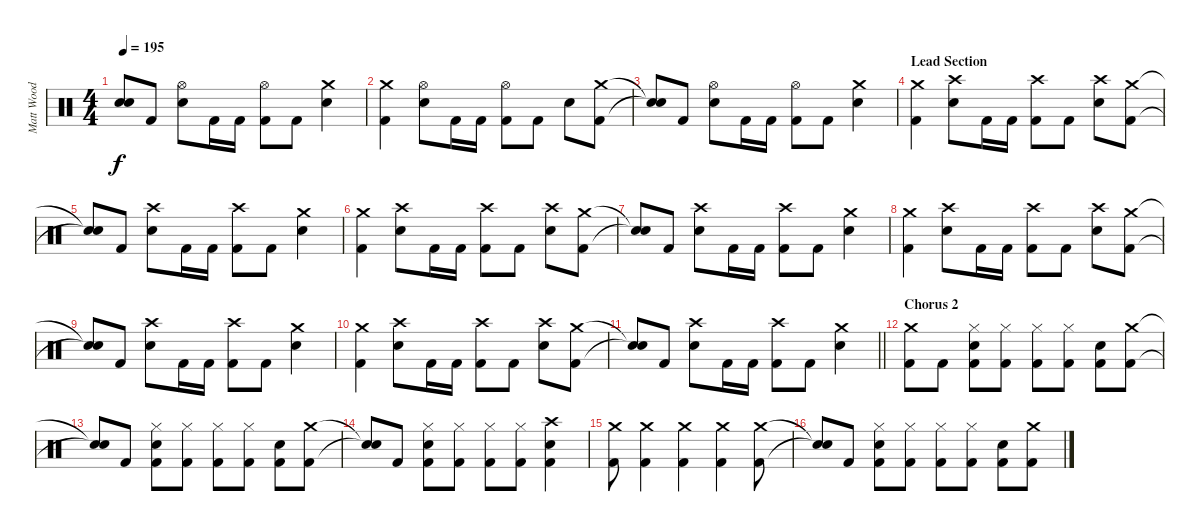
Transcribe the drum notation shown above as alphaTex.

\track ("Matt Wood" "Matt Wood") {instrument percussion}
\staff {score}
\articulation defaults
\ts (4 4)
\tempo 195
\clef neutral
\ks c
("Snare (hit)"{t} "Snare (hit)"{t}).8{dy f} "Kick (hit) 2".8 ("Hi-Hat (open)" "Snare (hit) 2").8 "Kick (hit) 2".16 "Kick (hit) 2".16 ("Hi-Hat (open)" "Kick (hit) 2").8 "Kick (hit) 2".8 ("Crash medium (hit)" "Snare (hit) 2").4 |
("Crash medium (hit)" "Kick (hit) 2").4 ("Hi-Hat (open)" "Snare (hit) 2").8 "Kick (hit) 2".16 "Kick (hit) 2".16 ("Hi-Hat (open)" "Kick (hit) 2").8 "Kick (hit) 2".8 "Snare (hit) 2".8 ("Crash medium (hit)" "Kick (hit) 2").8 |
("Snare (hit)"{t} "Snare (hit)"{t}).8 "Kick (hit) 2".8 ("Hi-Hat (open)" "Snare (hit) 2").8 "Kick (hit) 2".16 "Kick (hit) 2".16 ("Hi-Hat (open)" "Kick (hit) 2").8 "Kick (hit) 2".8 ("Crash medium (hit)" "Snare (hit) 2").4 |
\section ("" "Lead Section")
("Crash medium (hit)" "Kick (hit) 2").4 ("Crash high (hit)" "Snare (hit) 2").8 "Kick (hit) 2".16 "Kick (hit) 2".16 ("Crash high (hit)" "Kick (hit) 2").8 "Kick (hit) 2".8 ("Crash high (hit)" "Snare (hit) 2").8 ("Crash medium (hit)" "Kick (hit) 2").8 |
("Snare (hit)"{t} "Snare (hit)"{t}).8 "Kick (hit) 2".8 ("Crash high (hit)" "Snare (hit) 2").8 "Kick (hit) 2".16 "Kick (hit) 2".16 ("Crash high (hit)" "Kick (hit) 2").8 "Kick (hit) 2".8 ("Crash medium (hit)" "Snare (hit) 2").4 |
("Crash medium (hit)" "Kick (hit) 2").4 ("Crash high (hit)" "Snare (hit) 2").8 "Kick (hit) 2".16 "Kick (hit) 2".16 ("Crash high (hit)" "Kick (hit) 2").8 "Kick (hit) 2".8 ("Crash high (hit)" "Snare (hit) 2").8 ("Crash medium (hit)" "Kick (hit) 2").8 |
("Snare (hit)"{t} "Snare (hit)"{t}).8 "Kick (hit) 2".8 ("Crash high (hit)" "Snare (hit) 2").8 "Kick (hit) 2".16 "Kick (hit) 2".16 ("Crash high (hit)" "Kick (hit) 2").8 "Kick (hit) 2".8 ("Crash medium (hit)" "Snare (hit) 2").4 |
("Crash medium (hit)" "Kick (hit) 2").4 ("Crash high (hit)" "Snare (hit) 2").8 "Kick (hit) 2".16 "Kick (hit) 2".16 ("Crash high (hit)" "Kick (hit) 2").8 "Kick (hit) 2".8 ("Crash high (hit)" "Snare (hit) 2").8 ("Crash medium (hit)" "Kick (hit) 2").8 |
("Snare (hit)"{t} "Snare (hit)"{t}).8 "Kick (hit) 2".8 ("Crash high (hit)" "Snare (hit) 2").8 "Kick (hit) 2".16 "Kick (hit) 2".16 ("Crash high (hit)" "Kick (hit) 2").8 "Kick (hit) 2".8 ("Crash medium (hit)" "Snare (hit) 2").4 |
("Crash medium (hit)" "Kick (hit) 2").4 ("Crash high (hit)" "Snare (hit) 2").8 "Kick (hit) 2".16 "Kick (hit) 2".16 ("Crash high (hit)" "Kick (hit) 2").8 "Kick (hit) 2".8 ("Crash high (hit)" "Snare (hit) 2").8 ("Crash medium (hit)" "Kick (hit) 2").8 |
\barLineRight lightlight
("Snare (hit)"{t} "Snare (hit)"{t}).8 "Kick (hit) 2".8 ("Crash high (hit)" "Snare (hit) 2").8 "Kick (hit) 2".16 "Kick (hit) 2".16 ("Crash high (hit)" "Kick (hit) 2").8 "Kick (hit) 2".8 ("Crash medium (hit)" "Snare (hit) 2").4 |
\section ("" "Chorus 2")
("Crash medium (hit)" "Kick (hit) 2").8 "Kick (hit) 2".8 ("Hi-Hat (closed)" "Snare (hit) 2" "Kick (hit) 2").8 ("Hi-Hat (closed)" "Kick (hit) 2").8 ("Hi-Hat (closed)" "Kick (hit) 2").8 ("Hi-Hat (closed)" "Kick (hit) 2").8 ("Snare (hit) 2" "Kick (hit) 2").8 ("Crash medium (hit)" "Kick (hit) 2").8 |
("Snare (hit)"{t} "Snare (hit)"{t}).8 "Kick (hit) 2".8 ("Hi-Hat (closed)" "Snare (hit) 2" "Kick (hit) 2").8 ("Hi-Hat (closed)" "Kick (hit) 2").8 ("Hi-Hat (closed)" "Kick (hit) 2").8 ("Hi-Hat (closed)" "Kick (hit) 2").8 ("Snare (hit) 2" "Kick (hit) 2").8 ("Crash medium (hit)" "Kick (hit) 2").8 |
("Snare (hit)"{t} "Snare (hit)"{t}).8 "Kick (hit) 2".8 ("Hi-Hat (closed)" "Snare (hit) 2" "Kick (hit) 2").8 ("Hi-Hat (closed)" "Kick (hit) 2").8 ("Hi-Hat (closed)" "Kick (hit) 2").8 ("Hi-Hat (closed)" "Kick (hit) 2").8 ("Crash high (hit)" "Snare (hit) 2" "Kick (hit) 2").4 |
("Crash medium (hit)" "Kick (hit) 2").8 ("Crash medium (hit)" "Kick (hit) 2").4 ("Crash medium (hit)" "Kick (hit) 2").4 ("Crash medium (hit)" "Kick (hit) 2").4 ("Crash medium (hit)" "Kick (hit) 2").8 |
("Snare (hit)"{t} "Snare (hit)"{t}).8 "Kick (hit) 2".8 ("Hi-Hat (closed)" "Snare (hit) 2" "Kick (hit) 2").8 ("Hi-Hat (closed)" "Kick (hit) 2").8 ("Hi-Hat (closed)" "Kick (hit) 2").8 ("Hi-Hat (closed)" "Kick (hit) 2").8 ("Snare (hit) 2" "Kick (hit) 2").8 ("Crash medium (hit)" "Kick (hit) 2").8
